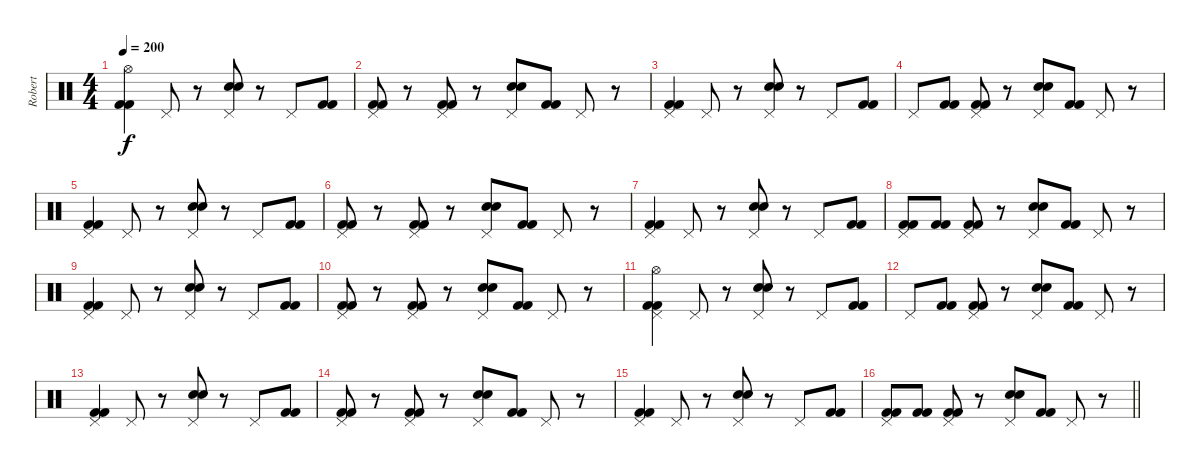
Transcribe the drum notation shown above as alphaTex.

\track ("Robert" "Robert") {instrument percussion}
\staff {score}
\articulation defaults
\ts (4 4)
\tempo 200
\clef neutral
\ks c
("Hi-Hat (open)" "Kick (hit) 2" "Kick (hit) 2").4{dy f} "Pedal Hi-Hat (hit)".8 r.8 ("Pedal Hi-Hat (hit)" "Electric Snare (hit)" "Electric Snare (hit)").8 r.8 "Pedal Hi-Hat (hit)".8 ("Kick (hit) 2" "Kick (hit) 2").8 |
("Pedal Hi-Hat (hit)" "Kick (hit) 2" "Kick (hit) 2").8 r.8 ("Pedal Hi-Hat (hit)" "Kick (hit) 2" "Kick (hit) 2").8 r.8 ("Pedal Hi-Hat (hit)" "Electric Snare (hit)" "Electric Snare (hit)").8 ("Kick (hit) 2" "Kick (hit) 2").8 "Pedal Hi-Hat (hit)".8 r.8 |
("Pedal Hi-Hat (hit)" "Kick (hit) 2" "Kick (hit) 2").4 "Pedal Hi-Hat (hit)".8 r.8 ("Pedal Hi-Hat (hit)" "Electric Snare (hit)" "Electric Snare (hit)").8 r.8 "Pedal Hi-Hat (hit)".8 ("Kick (hit) 2" "Kick (hit) 2").8 |
"Pedal Hi-Hat (hit)".8 ("Kick (hit) 2" "Kick (hit) 2").8 ("Pedal Hi-Hat (hit)" "Kick (hit) 2" "Kick (hit) 2").8 r.8 ("Pedal Hi-Hat (hit)" "Electric Snare (hit)" "Electric Snare (hit)").8 ("Kick (hit) 2" "Kick (hit) 2").8 "Pedal Hi-Hat (hit)".8 r.8 |
("Pedal Hi-Hat (hit)" "Kick (hit) 2" "Kick (hit) 2").4 "Pedal Hi-Hat (hit)".8 r.8 ("Pedal Hi-Hat (hit)" "Electric Snare (hit)" "Electric Snare (hit)").8 r.8 "Pedal Hi-Hat (hit)".8 ("Kick (hit) 2" "Kick (hit) 2").8 |
("Pedal Hi-Hat (hit)" "Kick (hit) 2" "Kick (hit) 2").8 r.8 ("Pedal Hi-Hat (hit)" "Kick (hit) 2" "Kick (hit) 2").8 r.8 ("Pedal Hi-Hat (hit)" "Electric Snare (hit)" "Electric Snare (hit)").8 ("Kick (hit) 2" "Kick (hit) 2").8 "Pedal Hi-Hat (hit)".8 r.8 |
("Pedal Hi-Hat (hit)" "Kick (hit) 2" "Kick (hit) 2").4 "Pedal Hi-Hat (hit)".8 r.8 ("Pedal Hi-Hat (hit)" "Electric Snare (hit)" "Electric Snare (hit)").8 r.8 "Pedal Hi-Hat (hit)".8 ("Kick (hit) 2" "Kick (hit) 2").8 |
("Pedal Hi-Hat (hit)" "Kick (hit) 2" "Kick (hit) 2").8 ("Kick (hit) 2" "Kick (hit) 2").8 ("Pedal Hi-Hat (hit)" "Kick (hit) 2" "Kick (hit) 2").8 r.8 ("Pedal Hi-Hat (hit)" "Electric Snare (hit)" "Electric Snare (hit)").8 ("Kick (hit) 2" "Kick (hit) 2").8 "Pedal Hi-Hat (hit)".8 r.8 |
("Pedal Hi-Hat (hit)" "Kick (hit) 2" "Kick (hit) 2").4 "Pedal Hi-Hat (hit)".8 r.8 ("Pedal Hi-Hat (hit)" "Electric Snare (hit)" "Electric Snare (hit)").8 r.8 "Pedal Hi-Hat (hit)".8 ("Kick (hit) 2" "Kick (hit) 2").8 |
("Pedal Hi-Hat (hit)" "Kick (hit) 2" "Kick (hit) 2").8 r.8 ("Pedal Hi-Hat (hit)" "Kick (hit) 2" "Kick (hit) 2").8 r.8 ("Pedal Hi-Hat (hit)" "Electric Snare (hit)" "Electric Snare (hit)").8 ("Kick (hit) 2" "Kick (hit) 2").8 "Pedal Hi-Hat (hit)".8 r.8 |
("Hi-Hat (open)" "Pedal Hi-Hat (hit)" "Kick (hit) 2" "Kick (hit) 2").4 "Pedal Hi-Hat (hit)".8 r.8 ("Pedal Hi-Hat (hit)" "Electric Snare (hit)" "Electric Snare (hit)").8 r.8 "Pedal Hi-Hat (hit)".8 ("Kick (hit) 2" "Kick (hit) 2").8 |
"Pedal Hi-Hat (hit)".8 ("Kick (hit) 2" "Kick (hit) 2").8 ("Pedal Hi-Hat (hit)" "Kick (hit) 2" "Kick (hit) 2").8 r.8 ("Pedal Hi-Hat (hit)" "Electric Snare (hit)" "Electric Snare (hit)").8 ("Kick (hit) 2" "Kick (hit) 2").8 "Pedal Hi-Hat (hit)".8 r.8 |
("Pedal Hi-Hat (hit)" "Kick (hit) 2" "Kick (hit) 2").4 "Pedal Hi-Hat (hit)".8 r.8 ("Pedal Hi-Hat (hit)" "Electric Snare (hit)" "Electric Snare (hit)").8 r.8 "Pedal Hi-Hat (hit)".8 ("Kick (hit) 2" "Kick (hit) 2").8 |
("Pedal Hi-Hat (hit)" "Kick (hit) 2" "Kick (hit) 2").8 r.8 ("Pedal Hi-Hat (hit)" "Kick (hit) 2" "Kick (hit) 2").8 r.8 ("Pedal Hi-Hat (hit)" "Electric Snare (hit)" "Electric Snare (hit)").8 ("Kick (hit) 2" "Kick (hit) 2").8 "Pedal Hi-Hat (hit)".8 r.8 |
("Pedal Hi-Hat (hit)" "Kick (hit) 2" "Kick (hit) 2").4 "Pedal Hi-Hat (hit)".8 r.8 ("Pedal Hi-Hat (hit)" "Electric Snare (hit)" "Electric Snare (hit)").8 r.8 "Pedal Hi-Hat (hit)".8 ("Kick (hit) 2" "Kick (hit) 2").8 |
\barLineRight lightlight
("Pedal Hi-Hat (hit)" "Kick (hit) 2" "Kick (hit) 2").8 ("Kick (hit) 2" "Kick (hit) 2").8 ("Pedal Hi-Hat (hit)" "Kick (hit) 2" "Kick (hit) 2").8 r.8 ("Pedal Hi-Hat (hit)" "Electric Snare (hit)" "Electric Snare (hit)").8 ("Kick (hit) 2" "Kick (hit) 2").8 "Pedal Hi-Hat (hit)".8 r.8
